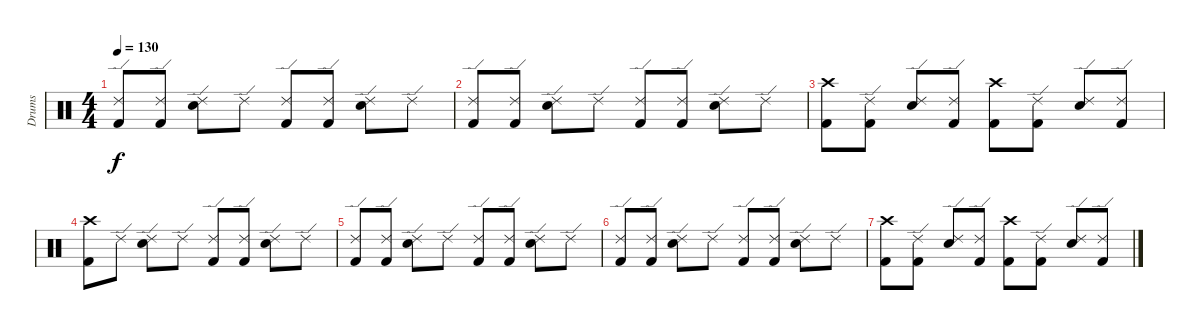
\track ("Drums" "Drums") {instrument percussion}
\staff {score}
\articulation defaults
\ts (4 4)
\tempo 130
\clef neutral
\ks c
("Ride (edge) 2" "Kick (hit) 2").8{dy f} ("Ride (edge) 2" "Kick (hit) 2").8 ("Ride (edge) 2" "Electric Snare (hit)").8 "Ride (edge) 2".8 ("Ride (edge) 2" "Kick (hit) 2").8 ("Ride (edge) 2" "Kick (hit) 2").8 ("Ride (edge) 2" "Electric Snare (hit)").8 "Ride (edge) 2".8 |
("Ride (edge) 2" "Kick (hit) 2").8 ("Ride (edge) 2" "Kick (hit) 2").8 ("Ride (edge) 2" "Electric Snare (hit)").8 "Ride (edge) 2".8 ("Ride (edge) 2" "Kick (hit) 2").8 ("Ride (edge) 2" "Kick (hit) 2").8 ("Ride (edge) 2" "Electric Snare (hit)").8 "Ride (edge) 2".8 |
("Crash high (hit)" "Kick (hit) 2").8 ("Ride (edge) 2" "Kick (hit) 2").8 ("Ride (edge) 2" "Electric Snare (hit)").8 ("Ride (edge) 2" "Kick (hit) 2").8 ("Crash high (hit)" "Kick (hit) 2").8 ("Ride (edge) 2" "Kick (hit) 2").8 ("Ride (edge) 2" "Electric Snare (hit)").8 ("Ride (edge) 2" "Kick (hit) 2").8 |
("Crash high (hit)" "Kick (hit) 2").8 "Ride (edge) 2".8 ("Ride (edge) 2" "Electric Snare (hit)").8 "Ride (edge) 2".8 ("Ride (edge) 2" "Kick (hit) 2").8 ("Ride (edge) 2" "Kick (hit) 2").8 ("Ride (edge) 2" "Electric Snare (hit)").8 "Ride (edge) 2".8 |
("Ride (edge) 2" "Kick (hit) 2").8 ("Ride (edge) 2" "Kick (hit) 2").8 ("Ride (edge) 2" "Electric Snare (hit)").8 "Ride (edge) 2".8 ("Ride (edge) 2" "Kick (hit) 2").8 ("Ride (edge) 2" "Kick (hit) 2").8 ("Ride (edge) 2" "Electric Snare (hit)").8 "Ride (edge) 2".8 |
("Ride (edge) 2" "Kick (hit) 2").8 ("Ride (edge) 2" "Kick (hit) 2").8 ("Ride (edge) 2" "Electric Snare (hit)").8 "Ride (edge) 2".8 ("Ride (edge) 2" "Kick (hit) 2").8 ("Ride (edge) 2" "Kick (hit) 2").8 ("Ride (edge) 2" "Electric Snare (hit)").8 "Ride (edge) 2".8 |
("Crash high (hit)" "Kick (hit) 2").8 ("Ride (edge) 2" "Kick (hit) 2").8 ("Ride (edge) 2" "Electric Snare (hit)").8 ("Ride (edge) 2" "Kick (hit) 2").8 ("Crash high (hit)" "Kick (hit) 2").8 ("Ride (edge) 2" "Kick (hit) 2").8 ("Ride (edge) 2" "Electric Snare (hit)").8 ("Ride (edge) 2" "Kick (hit) 2").8
